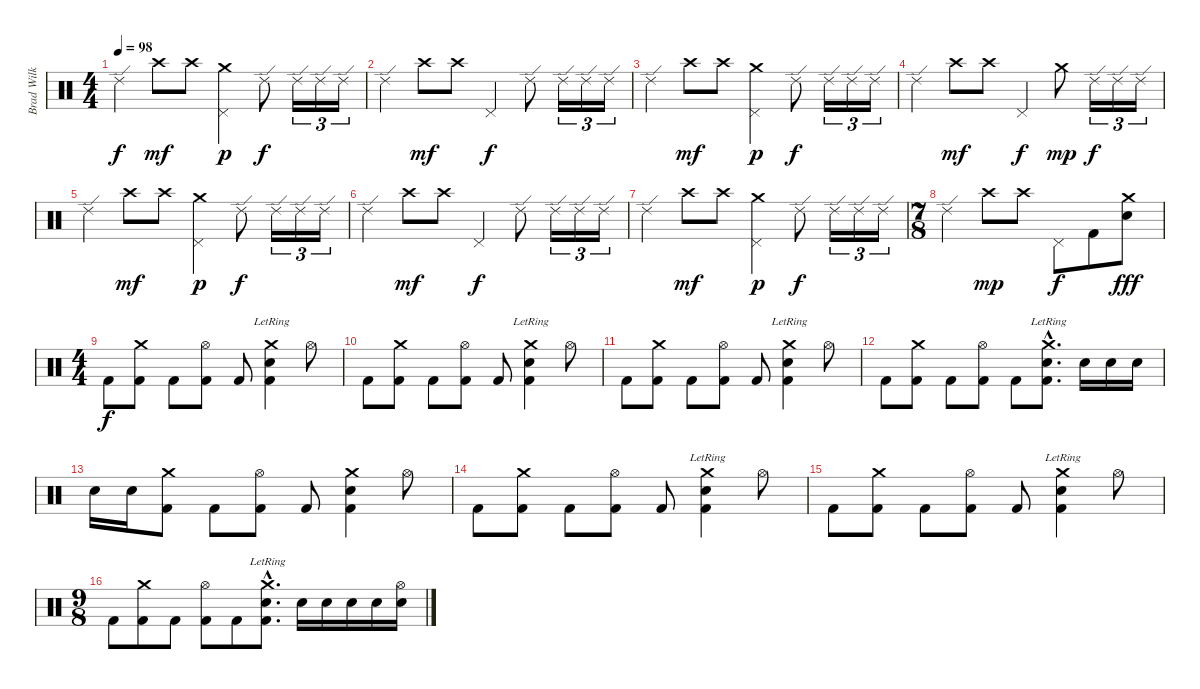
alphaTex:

\track ("Brad Wilk" "Brad Wilk") {instrument percussion}
\staff {score}
\articulation defaults
\ts (4 4)
\tempo 98
\clef neutral
\ks c "Ride (edge) 2".4{dy f} "Crash high (hit)".8{dy mf} "Crash high (hit)".8
("Crash medium (hit)" "Pedal Hi-Hat (hit)").4{dy p} "Ride (edge) 2".8{dy f} "Ride (edge) 2".16{tu (3 2)} "Ride (edge) 2".16{tu (3 2)} "Ride (edge) 2".16{tu (3 2)} |
"Ride (edge) 2".4 "Crash high (hit)".8{dy mf} "Crash high (hit)".8 "Pedal Hi-Hat (hit)".4{dy f} "Ride (edge) 2".8 "Ride (edge) 2".16{tu (3 2)} "Ride (edge) 2".16{tu (3 2)} "Ride (edge) 2".16{tu (3 2)} |
"Ride (edge) 2".4 "Crash high (hit)".8{dy mf} "Crash high (hit)".8 ("Crash medium (hit)" "Pedal Hi-Hat (hit)").4{dy p} "Ride (edge) 2".8{dy f} "Ride (edge) 2".16{tu (3 2)} "Ride (edge) 2".16{tu (3 2)} "Ride (edge) 2".16{tu (3 2)} |
"Ride (edge) 2".4 "Crash high (hit)".8{dy mf} "Crash high (hit)".8 "Pedal Hi-Hat (hit)".4{dy f} "Crash medium (hit)".8{dy mp} "Ride (edge) 2".16{tu (3 2) dy f} "Ride (edge) 2".16{tu (3 2)} "Ride (edge) 2".16{tu (3 2)} |
"Ride (edge) 2".4 "Crash high (hit)".8{dy mf} "Crash high (hit)".8 ("Crash medium (hit)" "Pedal Hi-Hat (hit)").4{dy p} "Ride (edge) 2".8{dy f} "Ride (edge) 2".16{tu (3 2)} "Ride (edge) 2".16{tu (3 2)} "Ride (edge) 2".16{tu (3 2)} |
"Ride (edge) 2".4 "Crash high (hit)".8{dy mf} "Crash high (hit)".8 "Pedal Hi-Hat (hit)".4{dy f} "Ride (edge) 2".8 "Ride (edge) 2".16{tu (3 2)} "Ride (edge) 2".16{tu (3 2)} "Ride (edge) 2".16{tu (3 2)} |
"Ride (edge) 2".4 "Crash high (hit)".8{dy mf} "Crash high (hit)".8 ("Crash medium (hit)" "Pedal Hi-Hat (hit)").4{dy p} "Ride (edge) 2".8{dy f} "Ride (edge) 2".16{tu (3 2)} "Ride (edge) 2".16{tu (3 2)} "Ride (edge) 2".16{tu (3 2)} |
\ts (7 8)
"Ride (edge) 2".4 "Crash high (hit)".8{dy mp} "Crash high (hit)".8 "Pedal Hi-Hat (hit)".8{dy f} "Kick (hit) 2".8 ("Crash medium (hit)" "Electric Snare (hit)").8{dy fff} |
\ts (4 4)
"Kick (hit) 2".8{dy f} ("Crash medium (hit)" "Kick (hit) 2").8 "Kick (hit) 2".8 ("Hi-Hat (open)" "Kick (hit) 2").8 "Kick (hit) 2".8 ("Crash medium (hit)" "Electric Snare (hit)"{lr} "Kick (hit) 2").4 "Hi-Hat (open)".8 |
"Kick (hit) 2".8 ("Crash medium (hit)" "Kick (hit) 2").8 "Kick (hit) 2".8 ("Hi-Hat (open)" "Kick (hit) 2").8 "Kick (hit) 2".8 ("Crash medium (hit)" "Electric Snare (hit)"{lr} "Kick (hit) 2").4 "Hi-Hat (open)".8 |
"Kick (hit) 2".8 ("Crash medium (hit)" "Kick (hit) 2").8 "Kick (hit) 2".8 ("Hi-Hat (open)" "Kick (hit) 2").8 "Kick (hit) 2".8 ("Crash medium (hit)" "Electric Snare (hit)"{lr} "Kick (hit) 2").4 "Hi-Hat (open)".8 |
"Kick (hit) 2".8 ("Crash medium (hit)" "Kick (hit) 2").8 "Kick (hit) 2".8 ("Hi-Hat (open)" "Kick (hit) 2").8 "Kick (hit) 2".8 ("Crash medium (hit)"{hac} "Electric Snare (hit)"{hac lr} "Kick (hit) 2"{hac}).8{d} "Electric Snare (hit)".16 "Electric Snare (hit)".16 "Electric Snare (hit)".16 |
"Electric Snare (hit)".16 "Electric Snare (hit)".16 ("Crash medium (hit)" "Kick (hit) 2").8 "Kick (hit) 2".8 ("Hi-Hat (open)" "Kick (hit) 2").8 "Kick (hit) 2".8 ("Crash medium (hit)" "Electric Snare (hit)" "Kick (hit) 2").4 "Hi-Hat (open)".8 |
"Kick (hit) 2".8 ("Crash medium (hit)" "Kick (hit) 2").8 "Kick (hit) 2".8 ("Hi-Hat (open)" "Kick (hit) 2").8 "Kick (hit) 2".8 ("Crash medium (hit)" "Electric Snare (hit)"{lr} "Kick (hit) 2").4 "Hi-Hat (open)".8 |
"Kick (hit) 2".8 ("Crash medium (hit)" "Kick (hit) 2").8 "Kick (hit) 2".8 ("Hi-Hat (open)" "Kick (hit) 2").8 "Kick (hit) 2".8 ("Crash medium (hit)" "Electric Snare (hit)"{lr} "Kick (hit) 2").4 "Hi-Hat (open)".8 |
\ts (9 8)
"Kick (hit) 2".8 ("Crash medium (hit)" "Kick (hit) 2").8 "Kick (hit) 2".8 ("Hi-Hat (open)" "Kick (hit) 2").8 "Kick (hit) 2".8 ("Crash medium (hit)"{hac} "Electric Snare (hit)"{hac lr} "Kick (hit) 2"{hac}).8{d} "Electric Snare (hit)".16 "Electric Snare (hit)".16 "Electric Snare (hit)".16 "Electric Snare (hit)".16 ("Hi-Hat (open)" "Electric Snare (hit)").16
